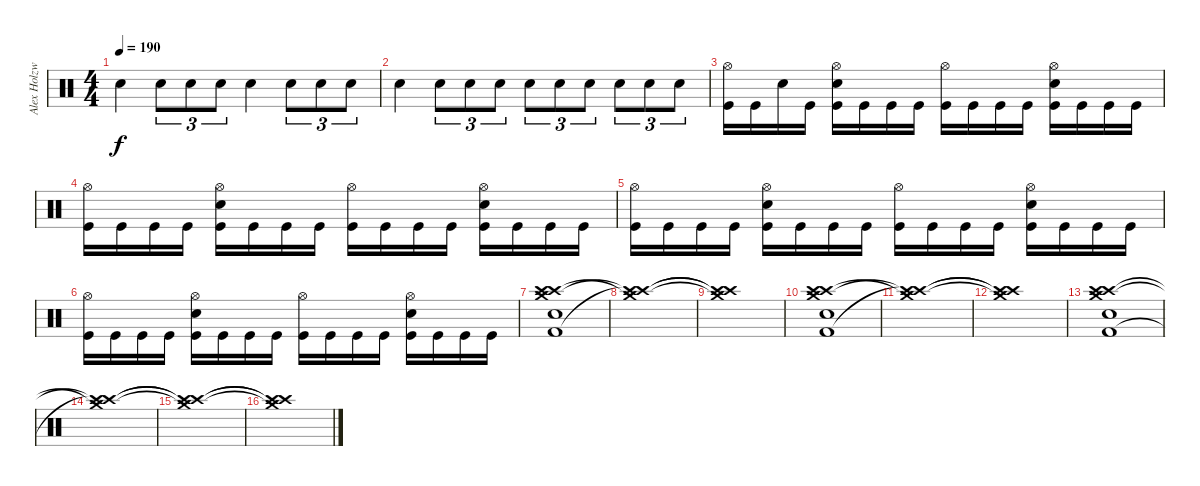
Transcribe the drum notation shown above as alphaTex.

\track ("Alex Holzwarth" "Alex Holzw") {instrument percussion}
\staff {score}
\articulation defaults
\ts (4 4)
\tempo 190
\clef neutral
\ks c "Electric Snare (hit)".4{dy f} "Electric Snare (hit)".8{tu (3 2)} "Electric Snare (hit)".8{tu (3 2)} "Electric Snare (hit)".8{tu (3 2)} "Electric Snare (hit)".4 "Electric Snare (hit)".8{tu (3 2)} "Electric Snare (hit)".8{tu (3 2)} "Electric Snare (hit)".8{tu (3 2)}
|
"Electric Snare (hit)".4 "Electric Snare (hit)".8{tu (3 2)} "Electric Snare (hit)".8{tu (3 2)} "Electric Snare (hit)".8{tu (3 2)} "Electric Snare (hit)".8{tu (3 2)} "Electric Snare (hit)".8{tu (3 2)} "Electric Snare (hit)".8{tu (3 2)} "Electric Snare (hit)".8{tu (3 2)} "Electric Snare (hit)".8{tu (3 2)} "Electric Snare (hit)".8{tu (3 2)} |
("Kick (hit)" "Hi-Hat (open)").16 "Kick (hit)".16 "Snare (hit)".16 "Kick (hit)".16 ("Kick (hit)" "Electric Snare (hit)" "Hi-Hat (open)").16 "Kick (hit)".16 "Kick (hit)".16 "Kick (hit)".16 ("Kick (hit)" "Hi-Hat (open)").16 "Kick (hit)".16 "Kick (hit)".16 "Kick (hit)".16 ("Kick (hit)" "Electric Snare (hit)" "Hi-Hat (open)").16 "Kick (hit)".16 "Kick (hit)".16 "Kick (hit)".16 |
("Kick (hit)" "Hi-Hat (open)").16 "Kick (hit)".16 "Kick (hit)".16 "Kick (hit)".16 ("Kick (hit)" "Electric Snare (hit)" "Hi-Hat (open)").16 "Kick (hit)".16 "Kick (hit)".16 "Kick (hit)".16 ("Kick (hit)" "Hi-Hat (open)").16 "Kick (hit)".16 "Kick (hit)".16 "Kick (hit)".16 ("Kick (hit)" "Electric Snare (hit)" "Hi-Hat (open)").16 "Kick (hit)".16 "Kick (hit)".16 "Kick (hit)".16 |
("Kick (hit)" "Hi-Hat (open)").16 "Kick (hit)".16 "Kick (hit)".16 "Kick (hit)".16 ("Kick (hit)" "Electric Snare (hit)" "Hi-Hat (open)").16 "Kick (hit)".16 "Kick (hit)".16 "Kick (hit)".16 ("Kick (hit)" "Hi-Hat (open)").16 "Kick (hit)".16 "Kick (hit)".16 "Kick (hit)".16 ("Kick (hit)" "Electric Snare (hit)" "Hi-Hat (open)").16 "Kick (hit)".16 "Kick (hit)".16 "Kick (hit)".16 |
("Kick (hit)" "Hi-Hat (open)").16 "Kick (hit)".16 "Kick (hit)".16 "Kick (hit)".16 ("Kick (hit)" "Electric Snare (hit)" "Hi-Hat (open)").16 "Kick (hit)".16 "Kick (hit)".16 "Kick (hit)".16 ("Kick (hit)" "Hi-Hat (open)").16 "Kick (hit)".16 "Kick (hit)".16 "Kick (hit)".16 ("Kick (hit)" "Electric Snare (hit)" "Hi-Hat (open)").16 "Kick (hit)".16 "Kick (hit)".16 "Kick (hit)".16 |
("Kick (hit) 2" "Crash high (hit)" "Crash medium (hit)" "Electric Snare (hit)" "Crash high (hit)").1 |
("Crash high (hit)"{t} "Crash medium (hit)"{t} "Crash high (hit)"{t}).1 |
("Crash high (hit)"{t} "Crash medium (hit)"{t} "Crash high (hit)"{t}).1 |
("Kick (hit) 2" "Crash high (hit)" "Crash medium (hit)" "Electric Snare (hit)" "Crash high (hit)").1 |
("Crash high (hit)"{t} "Crash medium (hit)"{t} "Crash high (hit)"{t}).1 |
("Crash high (hit)"{t} "Crash medium (hit)"{t} "Crash high (hit)"{t}).1 |
("Kick (hit) 2" "Crash high (hit)" "Crash medium (hit)" "Electric Snare (hit)" "Crash high (hit)").1 |
("Crash high (hit)"{t} "Crash medium (hit)"{t} "Crash high (hit)"{t}).1 |
("Crash high (hit)"{t} "Crash medium (hit)"{t} "Crash high (hit)"{t}).1 |
("Crash high (hit)"{t} "Crash medium (hit)"{t} "Crash high (hit)"{t}).1
